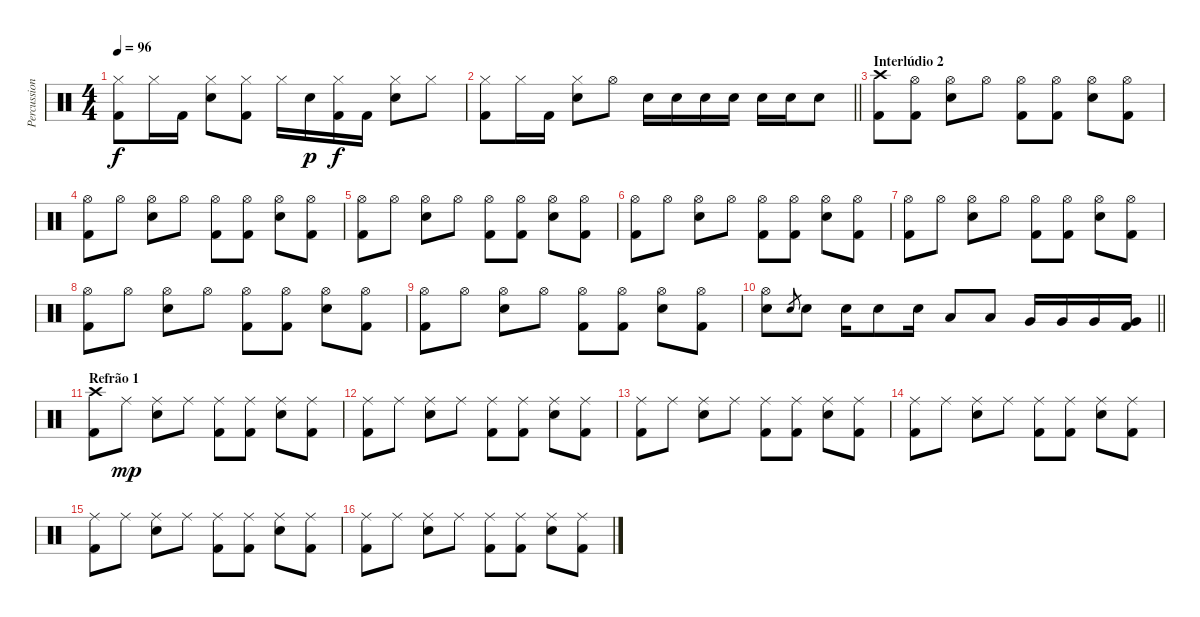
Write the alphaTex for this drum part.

\track ("Percussion" "Percussion") {instrument percussion}
\staff {score}
\articulation defaults
\ts (4 4)
\tempo 96
\clef neutral
\ks c
("Hi-Hat (closed)" "Kick (hit) 2").8{dy f} "Hi-Hat (closed)".16 "Kick (hit) 2".16 ("Hi-Hat (closed)" "Electric Snare (hit)").8 ("Hi-Hat (closed)" "Kick (hit) 2").8 "Hi-Hat (closed)".16 "Electric Snare (hit)".16{dy p} ("Hi-Hat (closed)" "Kick (hit) 2").16{dy f} "Kick (hit) 2".16 ("Hi-Hat (closed)" "Electric Snare (hit)").8 "Hi-Hat (closed)".8 |
\barLineRight lightlight
("Hi-Hat (closed)" "Kick (hit) 2").8 "Hi-Hat (closed)".16 "Kick (hit) 2".16 ("Hi-Hat (closed)" "Electric Snare (hit)").8 "Hi-Hat (open)".8 "Electric Snare (hit)".16 "Electric Snare (hit)".16 "Electric Snare (hit)".16 "Electric Snare (hit)".16 "Electric Snare (hit)".16 "Electric Snare (hit)".16 "Electric Snare (hit)".8 |
\section ("" "Interlúdio 2")
("Crash high (hit)" "Kick (hit) 2").8 ("Hi-Hat (open)" "Kick (hit) 2").8 ("Hi-Hat (open)" "Electric Snare (hit)").8 "Hi-Hat (open)".8 ("Hi-Hat (open)" "Kick (hit) 2").8 ("Hi-Hat (open)" "Kick (hit) 2").8 ("Hi-Hat (open)" "Electric Snare (hit)").8 ("Hi-Hat (open)" "Kick (hit) 2").8 |
("Hi-Hat (open)" "Kick (hit) 2").8 "Hi-Hat (open)".8 ("Hi-Hat (open)" "Electric Snare (hit)").8 "Hi-Hat (open)".8 ("Hi-Hat (open)" "Kick (hit) 2").8 ("Hi-Hat (open)" "Kick (hit) 2").8 ("Hi-Hat (open)" "Electric Snare (hit)").8 ("Hi-Hat (open)" "Kick (hit) 2").8 |
("Hi-Hat (open)" "Kick (hit) 2").8 "Hi-Hat (open)".8 ("Hi-Hat (open)" "Electric Snare (hit)").8 "Hi-Hat (open)".8 ("Hi-Hat (open)" "Kick (hit) 2").8 ("Hi-Hat (open)" "Kick (hit) 2").8 ("Hi-Hat (open)" "Electric Snare (hit)").8 ("Hi-Hat (open)" "Kick (hit) 2").8 |
("Hi-Hat (open)" "Kick (hit) 2").8 "Hi-Hat (open)".8 ("Hi-Hat (open)" "Electric Snare (hit)").8 "Hi-Hat (open)".8 ("Hi-Hat (open)" "Kick (hit) 2").8 ("Hi-Hat (open)" "Kick (hit) 2").8 ("Hi-Hat (open)" "Electric Snare (hit)").8 ("Hi-Hat (open)" "Kick (hit) 2").8 |
("Hi-Hat (open)" "Kick (hit) 2").8 "Hi-Hat (open)".8 ("Hi-Hat (open)" "Electric Snare (hit)").8 "Hi-Hat (open)".8 ("Hi-Hat (open)" "Kick (hit) 2").8 ("Hi-Hat (open)" "Kick (hit) 2").8 ("Hi-Hat (open)" "Electric Snare (hit)").8 ("Hi-Hat (open)" "Kick (hit) 2").8 |
("Hi-Hat (open)" "Kick (hit) 2").8 "Hi-Hat (open)".8 ("Hi-Hat (open)" "Electric Snare (hit)").8 "Hi-Hat (open)".8 ("Hi-Hat (open)" "Kick (hit) 2").8 ("Hi-Hat (open)" "Kick (hit) 2").8 ("Hi-Hat (open)" "Electric Snare (hit)").8 ("Hi-Hat (open)" "Kick (hit) 2").8 |
("Hi-Hat (open)" "Kick (hit) 2").8 "Hi-Hat (open)".8 ("Hi-Hat (open)" "Electric Snare (hit)").8 "Hi-Hat (open)".8 ("Hi-Hat (open)" "Kick (hit) 2").8 ("Hi-Hat (open)" "Kick (hit) 2").8 ("Hi-Hat (open)" "Electric Snare (hit)").8 ("Hi-Hat (open)" "Kick (hit) 2").8 |
\barLineRight lightlight
("Hi-Hat (open)" "Electric Snare (hit)").8 "Electric Snare (hit)".8{gr} "Electric Snare (hit)".8 "Electric Snare (hit)".16 "Electric Snare (hit)".8 "Electric Snare (hit)".16 "Low Tom (hit)".8 "Low Tom (hit)".8 "Very Low Tom (hit)".16 "Very Low Tom (hit)".16 "Very Low Tom (hit)".16 ("Very Low Tom (hit)" "Kick (hit) 2").16 |
\section ("" "Refrão 1")
("Crash high (hit)" "Kick (hit) 2").8 "Ride (middle)".8{dy mp} ("Ride (middle)" "Electric Snare (hit)").8 "Ride (middle)".8 ("Ride (middle)" "Kick (hit) 2").8 ("Ride (middle)" "Kick (hit) 2").8 ("Ride (middle)" "Electric Snare (hit)").8 ("Ride (middle)" "Kick (hit) 2").8 |
("Ride (middle)" "Kick (hit) 2").8 "Ride (middle)".8 ("Ride (middle)" "Electric Snare (hit)").8 "Ride (middle)".8 ("Ride (middle)" "Kick (hit) 2").8 ("Ride (middle)" "Kick (hit) 2").8 ("Ride (middle)" "Electric Snare (hit)").8 ("Ride (middle)" "Kick (hit) 2").8 |
("Ride (middle)" "Kick (hit) 2").8 "Ride (middle)".8 ("Ride (middle)" "Electric Snare (hit)").8 "Ride (middle)".8 ("Ride (middle)" "Kick (hit) 2").8 ("Ride (middle)" "Kick (hit) 2").8 ("Ride (middle)" "Electric Snare (hit)").8 ("Ride (middle)" "Kick (hit) 2").8 |
("Ride (middle)" "Kick (hit) 2").8 "Ride (middle)".8 ("Ride (middle)" "Electric Snare (hit)").8 "Ride (middle)".8 ("Ride (middle)" "Kick (hit) 2").8 ("Ride (middle)" "Kick (hit) 2").8 ("Ride (middle)" "Electric Snare (hit)").8 ("Ride (middle)" "Kick (hit) 2").8 |
("Ride (middle)" "Kick (hit) 2").8 "Ride (middle)".8 ("Ride (middle)" "Electric Snare (hit)").8 "Ride (middle)".8 ("Ride (middle)" "Kick (hit) 2").8 ("Ride (middle)" "Kick (hit) 2").8 ("Ride (middle)" "Electric Snare (hit)").8 ("Ride (middle)" "Kick (hit) 2").8 |
("Ride (middle)" "Kick (hit) 2").8 "Ride (middle)".8 ("Ride (middle)" "Electric Snare (hit)").8 "Ride (middle)".8 ("Ride (middle)" "Kick (hit) 2").8 ("Ride (middle)" "Kick (hit) 2").8 ("Ride (middle)" "Electric Snare (hit)").8 ("Ride (middle)" "Kick (hit) 2").8
